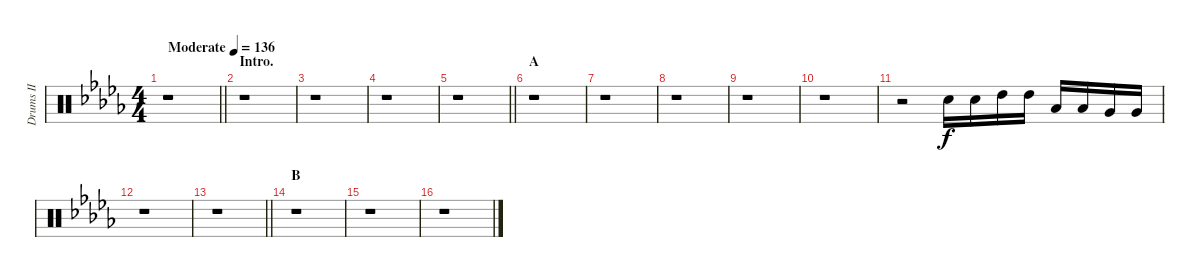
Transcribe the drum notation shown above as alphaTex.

\track ("Drums II" "Drums II") {instrument percussion}
\staff {score}
\articulation defaults
\ts (4 4)
\tempo (136 "Moderate")
\clef neutral
\barLineRight lightlight
\ks db
r.1{dy f} |
\section ("" "Intro.")
r.1 |
r.1 |
r.1 |
\barLineRight lightlight
r.1 |
\section ("" "A")
r.1 |
r.1 |
r.1 |
r.1 |
r.1 |
r.2 "Snare (hit) 2".16 "Snare (hit) 2".16 "High Tom (hit)".16 "High Tom (hit)".16 "Low Tom (hit)".16 "Low Tom (hit)".16 "Very Low Tom (hit)".16 "Very Low Tom (hit)".16 |
r.1 |
\barLineRight lightlight
r.1 |
\section ("" "B")
r.1 |
r.1 |
r.1
